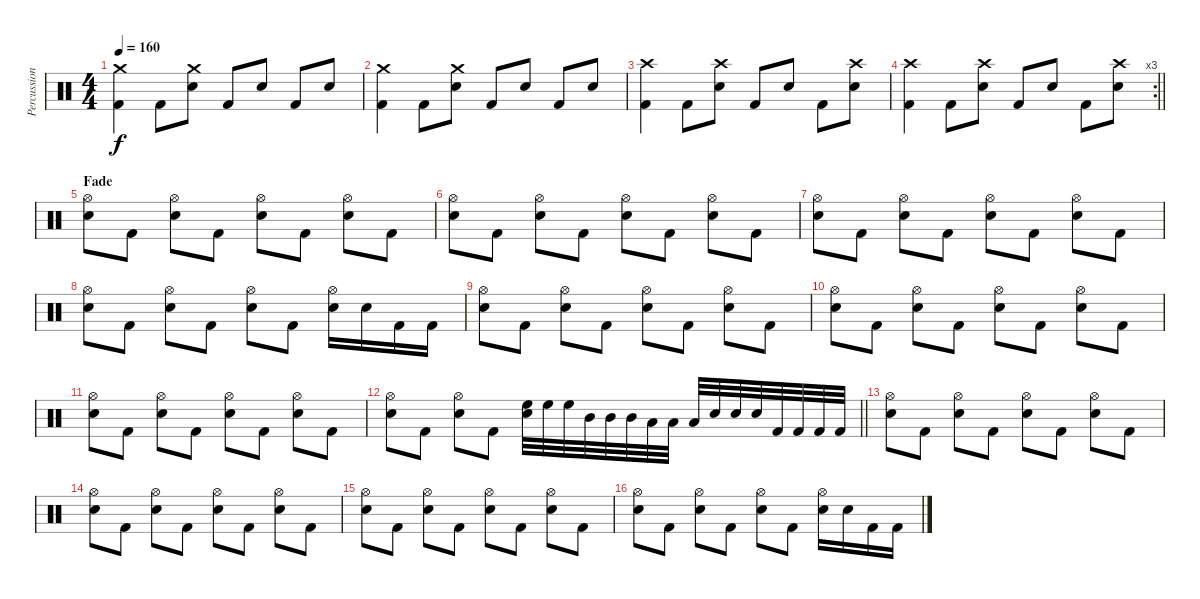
\track ("Percussion" "Percussion") {instrument percussion}
\staff {score}
\articulation defaults
\ts (4 4)
\tempo 160
\clef neutral
\ks c
("Crash medium (hit)" "Kick (hit) 2").4{dy f} "Kick (hit) 2".8 ("Crash medium (hit)" "Electric Snare (hit)").8 "Kick (hit) 2".8 "Electric Snare (hit)".8 "Kick (hit) 2".8 "Electric Snare (hit)".8 |
("Crash medium (hit)" "Kick (hit) 2").4 "Kick (hit) 2".8 ("Crash medium (hit)" "Electric Snare (hit)").8 "Kick (hit) 2".8 "Electric Snare (hit)".8 "Kick (hit) 2".8 "Electric Snare (hit)".8 |
("Crash high (hit)" "Kick (hit) 2").4 "Kick (hit) 2".8 ("Crash high (hit)" "Electric Snare (hit)").8 "Kick (hit) 2".8 "Electric Snare (hit)".8 "Kick (hit) 2".8 ("Crash high (hit)" "Electric Snare (hit)").8 |
\rc 3
\barLineRight lightlight
("Crash high (hit)" "Kick (hit) 2").4 "Kick (hit) 2".8 ("Crash high (hit)" "Electric Snare (hit)").8 "Kick (hit) 2".8 "Electric Snare (hit)".8 "Kick (hit) 2".8 ("Crash high (hit)" "Electric Snare (hit)").8 |
\section ("" "Fade")
("Hi-Hat (open)" "Electric Snare (hit)").8 "Kick (hit) 2".8 ("Hi-Hat (open)" "Electric Snare (hit)").8 "Kick (hit) 2".8 ("Hi-Hat (open)" "Electric Snare (hit)").8 "Kick (hit) 2".8 ("Hi-Hat (open)" "Electric Snare (hit)").8 "Kick (hit) 2".8 |
("Hi-Hat (open)" "Electric Snare (hit)").8 "Kick (hit) 2".8 ("Hi-Hat (open)" "Electric Snare (hit)").8 "Kick (hit) 2".8 ("Hi-Hat (open)" "Electric Snare (hit)").8 "Kick (hit) 2".8 ("Hi-Hat (open)" "Electric Snare (hit)").8 "Kick (hit) 2".8 |
("Hi-Hat (open)" "Electric Snare (hit)").8 "Kick (hit) 2".8 ("Hi-Hat (open)" "Electric Snare (hit)").8 "Kick (hit) 2".8 ("Hi-Hat (open)" "Electric Snare (hit)").8 "Kick (hit) 2".8 ("Hi-Hat (open)" "Electric Snare (hit)").8 "Kick (hit) 2".8 |
("Hi-Hat (open)" "Electric Snare (hit)").8 "Kick (hit) 2".8 ("Hi-Hat (open)" "Electric Snare (hit)").8 "Kick (hit) 2".8 ("Hi-Hat (open)" "Electric Snare (hit)").8 "Kick (hit) 2".8 ("Hi-Hat (open)" "Electric Snare (hit)").16 "Electric Snare (hit)".16 "Kick (hit) 2".16 "Kick (hit) 2".16 |
("Hi-Hat (open)" "Electric Snare (hit)").8 "Kick (hit) 2".8 ("Hi-Hat (open)" "Electric Snare (hit)").8 "Kick (hit) 2".8 ("Hi-Hat (open)" "Electric Snare (hit)").8 "Kick (hit) 2".8 ("Hi-Hat (open)" "Electric Snare (hit)").8 "Kick (hit) 2".8 |
("Hi-Hat (open)" "Electric Snare (hit)").8 "Kick (hit) 2".8 ("Hi-Hat (open)" "Electric Snare (hit)").8 "Kick (hit) 2".8 ("Hi-Hat (open)" "Electric Snare (hit)").8 "Kick (hit) 2".8 ("Hi-Hat (open)" "Electric Snare (hit)").8 "Kick (hit) 2".8 |
("Hi-Hat (open)" "Electric Snare (hit)").8 "Kick (hit) 2".8 ("Hi-Hat (open)" "Electric Snare (hit)").8 "Kick (hit) 2".8 ("Hi-Hat (open)" "Electric Snare (hit)").8 "Kick (hit) 2".8 ("Hi-Hat (open)" "Electric Snare (hit)").8 "Kick (hit) 2".8 |
\barLineRight lightlight
("Hi-Hat (open)" "Electric Snare (hit)").8 "Kick (hit) 2".8 ("Hi-Hat (open)" "Electric Snare (hit)").8 "Kick (hit) 2".8 ("High Floor Tom (hit)" "Electric Snare (hit)").32 "High Floor Tom (hit)".32 "High Floor Tom (hit)".32 "Mid Tom (hit)".32 "Mid Tom (hit)".32 "Mid Tom (hit)".32 "Low Tom (hit)".32 "Low Tom (hit)".32 "Low Tom (hit)".32 "Electric Snare (hit)".32 "Electric Snare (hit)".32 "Electric Snare (hit)".32 "Kick (hit) 2".32 "Kick (hit) 2".32 "Kick (hit) 2".32 "Kick (hit) 2".32 |
("Hi-Hat (open)" "Electric Snare (hit)").8 "Kick (hit) 2".8 ("Hi-Hat (open)" "Electric Snare (hit)").8 "Kick (hit) 2".8 ("Hi-Hat (open)" "Electric Snare (hit)").8 "Kick (hit) 2".8 ("Hi-Hat (open)" "Electric Snare (hit)").8 "Kick (hit) 2".8 |
("Hi-Hat (open)" "Electric Snare (hit)").8 "Kick (hit) 2".8 ("Hi-Hat (open)" "Electric Snare (hit)").8 "Kick (hit) 2".8 ("Hi-Hat (open)" "Electric Snare (hit)").8 "Kick (hit) 2".8 ("Hi-Hat (open)" "Electric Snare (hit)").8 "Kick (hit) 2".8 |
("Hi-Hat (open)" "Electric Snare (hit)").8 "Kick (hit) 2".8 ("Hi-Hat (open)" "Electric Snare (hit)").8 "Kick (hit) 2".8 ("Hi-Hat (open)" "Electric Snare (hit)").8 "Kick (hit) 2".8 ("Hi-Hat (open)" "Electric Snare (hit)").8 "Kick (hit) 2".8 |
("Hi-Hat (open)" "Electric Snare (hit)").8 "Kick (hit) 2".8 ("Hi-Hat (open)" "Electric Snare (hit)").8 "Kick (hit) 2".8 ("Hi-Hat (open)" "Electric Snare (hit)").8 "Kick (hit) 2".8 ("Hi-Hat (open)" "Electric Snare (hit)").16 "Electric Snare (hit)".16 "Kick (hit) 2".16 "Kick (hit) 2".16
